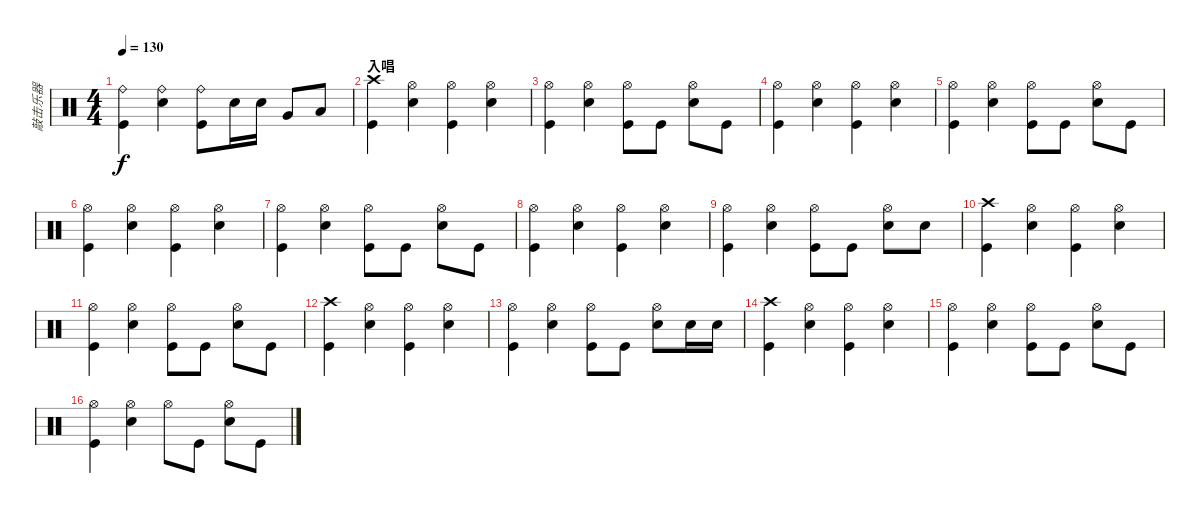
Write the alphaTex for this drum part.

\track ("敲击乐器" "敲击乐器") {instrument percussion}
\staff {score}
\articulation defaults
\ts (4 4)
\tempo 130
\clef neutral
\ks c
("Ride (bell)" "Kick (hit)").4{dy f} ("Ride (bell)" "Snare (hit) 2").4 ("Ride (bell)" "Kick (hit)").8 "Snare (hit) 2".16 "Snare (hit) 2".16 "Very Low Tom (hit)".8 "Low Floor Tom (hit)".8 |
\section ("" "入唱")
("Crash high (hit)" "Kick (hit)").4 ("Hi-Hat (open)" "Snare (hit) 2").4 ("Hi-Hat (open)" "Kick (hit)").4 ("Hi-Hat (open)" "Snare (hit) 2").4 |
("Hi-Hat (open)" "Kick (hit)").4 ("Hi-Hat (open)" "Snare (hit) 2").4 ("Hi-Hat (open)" "Kick (hit)").8 "Kick (hit)".8 ("Hi-Hat (open)" "Snare (hit) 2").8 "Kick (hit)".8 |
("Hi-Hat (open)" "Kick (hit)").4 ("Hi-Hat (open)" "Snare (hit) 2").4 ("Hi-Hat (open)" "Kick (hit)").4 ("Hi-Hat (open)" "Snare (hit) 2").4 |
("Hi-Hat (open)" "Kick (hit)").4 ("Hi-Hat (open)" "Snare (hit) 2").4 ("Hi-Hat (open)" "Kick (hit)").8 "Kick (hit)".8 ("Hi-Hat (open)" "Snare (hit) 2").8 "Kick (hit)".8 |
("Hi-Hat (open)" "Kick (hit)").4 ("Hi-Hat (open)" "Snare (hit) 2").4 ("Hi-Hat (open)" "Kick (hit)").4 ("Hi-Hat (open)" "Snare (hit) 2").4 |
("Hi-Hat (open)" "Kick (hit)").4 ("Hi-Hat (open)" "Snare (hit) 2").4 ("Hi-Hat (open)" "Kick (hit)").8 "Kick (hit)".8 ("Hi-Hat (open)" "Snare (hit) 2").8 "Kick (hit)".8 |
("Hi-Hat (open)" "Kick (hit)").4 ("Hi-Hat (open)" "Snare (hit) 2").4 ("Hi-Hat (open)" "Kick (hit)").4 ("Hi-Hat (open)" "Snare (hit) 2").4 |
("Hi-Hat (open)" "Kick (hit)").4 ("Hi-Hat (open)" "Snare (hit) 2").4 ("Hi-Hat (open)" "Kick (hit)").8 "Kick (hit)".8 ("Hi-Hat (open)" "Snare (hit) 2").8 "Snare (hit) 2".8 |
("Crash high (hit)" "Kick (hit)").4 ("Hi-Hat (open)" "Snare (hit) 2").4 ("Hi-Hat (open)" "Kick (hit)").4 ("Hi-Hat (open)" "Snare (hit) 2").4 |
("Hi-Hat (open)" "Kick (hit)").4 ("Hi-Hat (open)" "Snare (hit) 2").4 ("Hi-Hat (open)" "Kick (hit)").8 "Kick (hit)".8 ("Hi-Hat (open)" "Snare (hit) 2").8 "Kick (hit)".8 |
("Crash high (hit)" "Kick (hit)").4 ("Hi-Hat (open)" "Snare (hit) 2").4 ("Hi-Hat (open)" "Kick (hit)").4 ("Hi-Hat (open)" "Snare (hit) 2").4 |
("Hi-Hat (open)" "Kick (hit)").4 ("Hi-Hat (open)" "Snare (hit) 2").4 ("Hi-Hat (open)" "Kick (hit)").8 "Kick (hit)".8 ("Hi-Hat (open)" "Snare (hit) 2").8 "Snare (hit) 2".16 "Snare (hit) 2".16 |
("Crash high (hit)" "Kick (hit)").4 ("Hi-Hat (open)" "Snare (hit) 2").4 ("Hi-Hat (open)" "Kick (hit)").4 ("Hi-Hat (open)" "Snare (hit) 2").4 |
("Hi-Hat (open)" "Kick (hit)").4 ("Hi-Hat (open)" "Snare (hit) 2").4 ("Hi-Hat (open)" "Kick (hit)").8 "Kick (hit)".8 ("Hi-Hat (open)" "Snare (hit) 2").8 "Kick (hit)".8 |
("Hi-Hat (open)" "Kick (hit)").4 ("Hi-Hat (open)" "Snare (hit) 2").4 "Hi-Hat (open)".8 "Kick (hit)".8 ("Hi-Hat (open)" "Snare (hit) 2").8 "Kick (hit)".8
